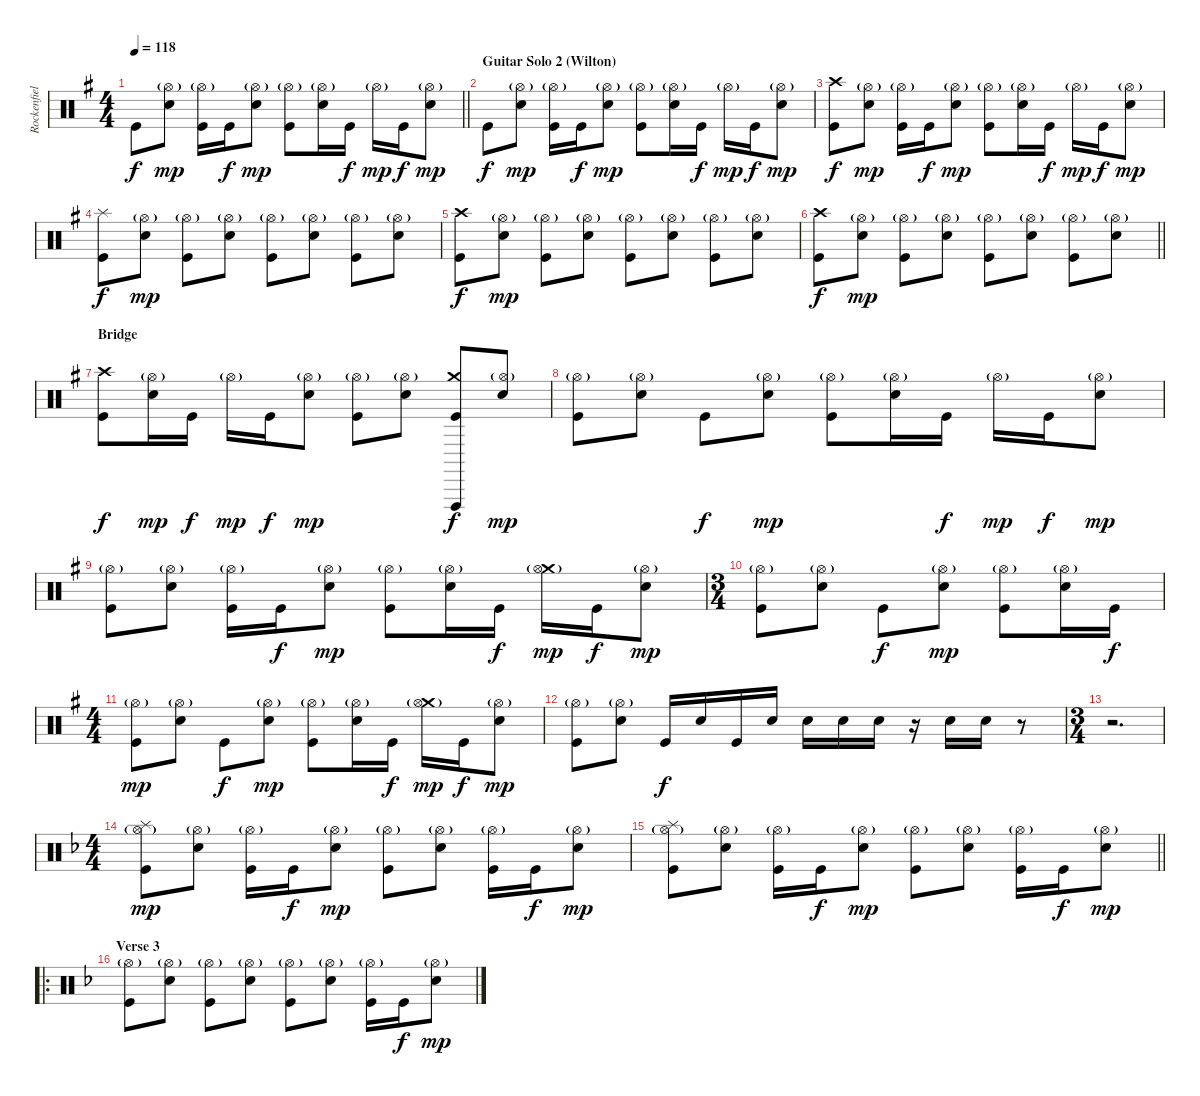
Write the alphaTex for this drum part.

\track ("Rockenfield" "Rockenfiel") {instrument percussion}
\staff {score}
\articulation defaults
\ts (4 4)
\tempo 118
\clef neutral
\barLineRight lightlight
\ks g "Kick (hit)".8{dy f}
("Hi-Hat (open)"{g} "Snare (hit) 2").8{dy mp} ("Hi-Hat (open)"{g} "Kick (hit)").16 "Kick (hit)".16{dy f} ("Hi-Hat (open)"{g} "Snare (hit) 2").8{dy mp} ("Hi-Hat (open)"{g} "Kick (hit)").8 ("Hi-Hat (open)"{g} "Snare (hit) 2").16 "Kick (hit)".16{dy f} "Hi-Hat (open)"{g}.16{dy mp} "Kick (hit)".16{dy f} ("Hi-Hat (open)"{g} "Snare (hit) 2").8{dy mp} |
\section ("" "Guitar Solo 2 (Wilton)")
"Kick (hit)".8{dy f} ("Hi-Hat (open)"{g} "Snare (hit) 2").8{dy mp} ("Hi-Hat (open)"{g} "Kick (hit)").16 "Kick (hit)".16{dy f} ("Hi-Hat (open)"{g} "Snare (hit) 2").8{dy mp} ("Hi-Hat (open)"{g} "Kick (hit)").8 ("Hi-Hat (open)"{g} "Snare (hit) 2").16 "Kick (hit)".16{dy f} "Hi-Hat (open)"{g}.16{dy mp} "Kick (hit)".16{dy f} ("Hi-Hat (open)"{g} "Snare (hit) 2").8{dy mp} |
("Crash high (hit)" "Kick (hit)").8{dy f} ("Hi-Hat (open)"{g} "Snare (hit) 2").8{dy mp} ("Hi-Hat (open)"{g} "Kick (hit)").16 "Kick (hit)".16{dy f} ("Hi-Hat (open)"{g} "Snare (hit) 2").8{dy mp} ("Hi-Hat (open)"{g} "Kick (hit)").8 ("Hi-Hat (open)"{g} "Snare (hit) 2").16 "Kick (hit)".16{dy f} "Hi-Hat (open)"{g}.16{dy mp} "Kick (hit)".16{dy f} ("Hi-Hat (open)"{g} "Snare (hit) 2").8{dy mp} |
("Splash (hit)" "Kick (hit)").8{dy f} ("Hi-Hat (open)"{g} "Snare (hit) 2").8{dy mp} ("Hi-Hat (open)"{g} "Kick (hit)").8 ("Hi-Hat (open)"{g} "Snare (hit) 2").8 ("Hi-Hat (open)"{g} "Kick (hit)").8 ("Hi-Hat (open)"{g} "Snare (hit) 2").8 ("Hi-Hat (open)"{g} "Kick (hit)").8 ("Hi-Hat (open)"{g} "Snare (hit) 2").8 |
("Crash high (hit)" "Kick (hit)").8{dy f} ("Hi-Hat (open)"{g} "Snare (hit) 2").8{dy mp} ("Hi-Hat (open)"{g} "Kick (hit)").8 ("Hi-Hat (open)"{g} "Snare (hit) 2").8 ("Hi-Hat (open)"{g} "Kick (hit)").8 ("Hi-Hat (open)"{g} "Snare (hit) 2").8 ("Hi-Hat (open)"{g} "Kick (hit)").8 ("Hi-Hat (open)"{g} "Snare (hit) 2").8 |
\barLineRight lightlight
("Crash high (hit)" "Kick (hit)").8{dy f} ("Hi-Hat (open)"{g} "Snare (hit) 2").8{dy mp} ("Hi-Hat (open)"{g} "Kick (hit)").8 ("Hi-Hat (open)"{g} "Snare (hit) 2").8 ("Hi-Hat (open)"{g} "Kick (hit)").8 ("Hi-Hat (open)"{g} "Snare (hit) 2").8 ("Hi-Hat (open)"{g} "Kick (hit)").8 ("Hi-Hat (open)"{g} "Snare (hit) 2").8 |
\section ("" "Bridge")
("Crash high (hit)" "Kick (hit)").8{dy f} ("Hi-Hat (open)"{g} "Snare (hit) 2").16{dy mp} "Kick (hit)".16{dy f} "Hi-Hat (open)"{g}.16{dy mp} "Kick (hit)".16{dy f} ("Hi-Hat (open)"{g} "Snare (hit) 2").8{dy mp} ("Hi-Hat (open)"{g} "Kick (hit)").8 ("Hi-Hat (open)"{g} "Snare (hit) 2").8 ("Crash medium (hit)" "Vibraslap (hit)" "Kick (hit)").8{dy f} ("Hi-Hat (open)"{g} "Snare (hit) 2").8{dy mp} |
("Hi-Hat (open)"{g} "Kick (hit)").8 ("Hi-Hat (open)"{g} "Snare (hit) 2").8 "Kick (hit)".8{dy f} ("Hi-Hat (open)"{g} "Snare (hit) 2").8{dy mp} ("Hi-Hat (open)"{g} "Kick (hit)").8 ("Hi-Hat (open)"{g} "Snare (hit) 2").16 "Kick (hit)".16{dy f} "Hi-Hat (open)"{g}.16{dy mp} "Kick (hit)".16{dy f} ("Hi-Hat (open)"{g} "Snare (hit) 2").8{dy mp} |
("Hi-Hat (open)"{g} "Kick (hit)").8 ("Hi-Hat (open)"{g} "Snare (hit) 2").8 ("Hi-Hat (open)"{g} "Kick (hit)").16 "Kick (hit)".16{dy f} ("Hi-Hat (open)"{g} "Snare (hit) 2").8{dy mp} ("Hi-Hat (open)"{g} "Kick (hit)").8 ("Hi-Hat (open)"{g} "Snare (hit) 2").16 "Kick (hit)".16{dy f} ("Crash medium (hit)" "Hi-Hat (open)"{g}).16{dy mp} "Kick (hit)".16{dy f} ("Hi-Hat (open)"{g} "Snare (hit) 2").8{dy mp} |
\ts (3 4)
("Hi-Hat (open)"{g} "Kick (hit)").8 ("Hi-Hat (open)"{g} "Snare (hit) 2").8 "Kick (hit)".8{dy f} ("Hi-Hat (open)"{g} "Snare (hit) 2").8{dy mp} ("Hi-Hat (open)"{g} "Kick (hit)").8 ("Hi-Hat (open)"{g} "Snare (hit) 2").16 "Kick (hit)".16{dy f} |
\ts (4 4)
("Hi-Hat (open)"{g} "Kick (hit)").8{dy mp} ("Hi-Hat (open)"{g} "Snare (hit) 2").8 "Kick (hit)".8{dy f} ("Hi-Hat (open)"{g} "Snare (hit) 2").8{dy mp} ("Hi-Hat (open)"{g} "Kick (hit)").8 ("Hi-Hat (open)"{g} "Snare (hit) 2").16 "Kick (hit)".16{dy f} ("Crash medium (hit)" "Hi-Hat (open)"{g}).16{dy mp} "Kick (hit)".16{dy f} ("Hi-Hat (open)"{g} "Snare (hit) 2").8{dy mp} |
("Hi-Hat (open)"{g} "Kick (hit)").8 ("Hi-Hat (open)"{g} "Snare (hit) 2").8 "Kick (hit)".16{dy f} "Snare (hit) 2".16 "Kick (hit)".16 "Snare (hit) 2".16 "Snare (hit) 2".16 "Snare (hit) 2".16 "Snare (hit) 2".16 r.16 "Snare (hit) 2".16 "Snare (hit) 2".16 r.8 |
\ts (3 4)
r.2{d} |
\ts (4 4)
\ks f
("Splash (hit)" "Hi-Hat (open)"{g} "Kick (hit)").8{dy mp} ("Hi-Hat (open)"{g} "Snare (hit) 2").8 ("Hi-Hat (open)"{g} "Kick (hit)").16 "Kick (hit)".16{dy f} ("Hi-Hat (open)"{g} "Snare (hit) 2").8{dy mp} ("Hi-Hat (open)"{g} "Kick (hit)").8 ("Hi-Hat (open)"{g} "Snare (hit) 2").8 ("Hi-Hat (open)"{g} "Kick (hit)").16 "Kick (hit)".16{dy f} ("Hi-Hat (open)"{g} "Snare (hit) 2").8{dy mp} |
\barLineRight lightlight
("Splash (hit)" "Hi-Hat (open)"{g} "Kick (hit)").8 ("Hi-Hat (open)"{g} "Snare (hit) 2").8 ("Hi-Hat (open)"{g} "Kick (hit)").16 "Kick (hit)".16{dy f} ("Hi-Hat (open)"{g} "Snare (hit) 2").8{dy mp} ("Hi-Hat (open)"{g} "Kick (hit)").8 ("Hi-Hat (open)"{g} "Snare (hit) 2").8 ("Hi-Hat (open)"{g} "Kick (hit)").16 "Kick (hit)".16{dy f} ("Hi-Hat (open)"{g} "Snare (hit) 2").8{dy mp} |
\ro
\section ("" "Verse 3")
("Hi-Hat (open)"{g} "Kick (hit)").8 ("Hi-Hat (open)"{g} "Snare (hit) 2").8 ("Hi-Hat (open)"{g} "Kick (hit)").8 ("Hi-Hat (open)"{g} "Snare (hit) 2").8 ("Hi-Hat (open)"{g} "Kick (hit)").8 ("Hi-Hat (open)"{g} "Snare (hit) 2").8 ("Hi-Hat (open)"{g} "Kick (hit)").16 "Kick (hit)".16{dy f} ("Hi-Hat (open)"{g} "Snare (hit) 2").8{dy mp}
